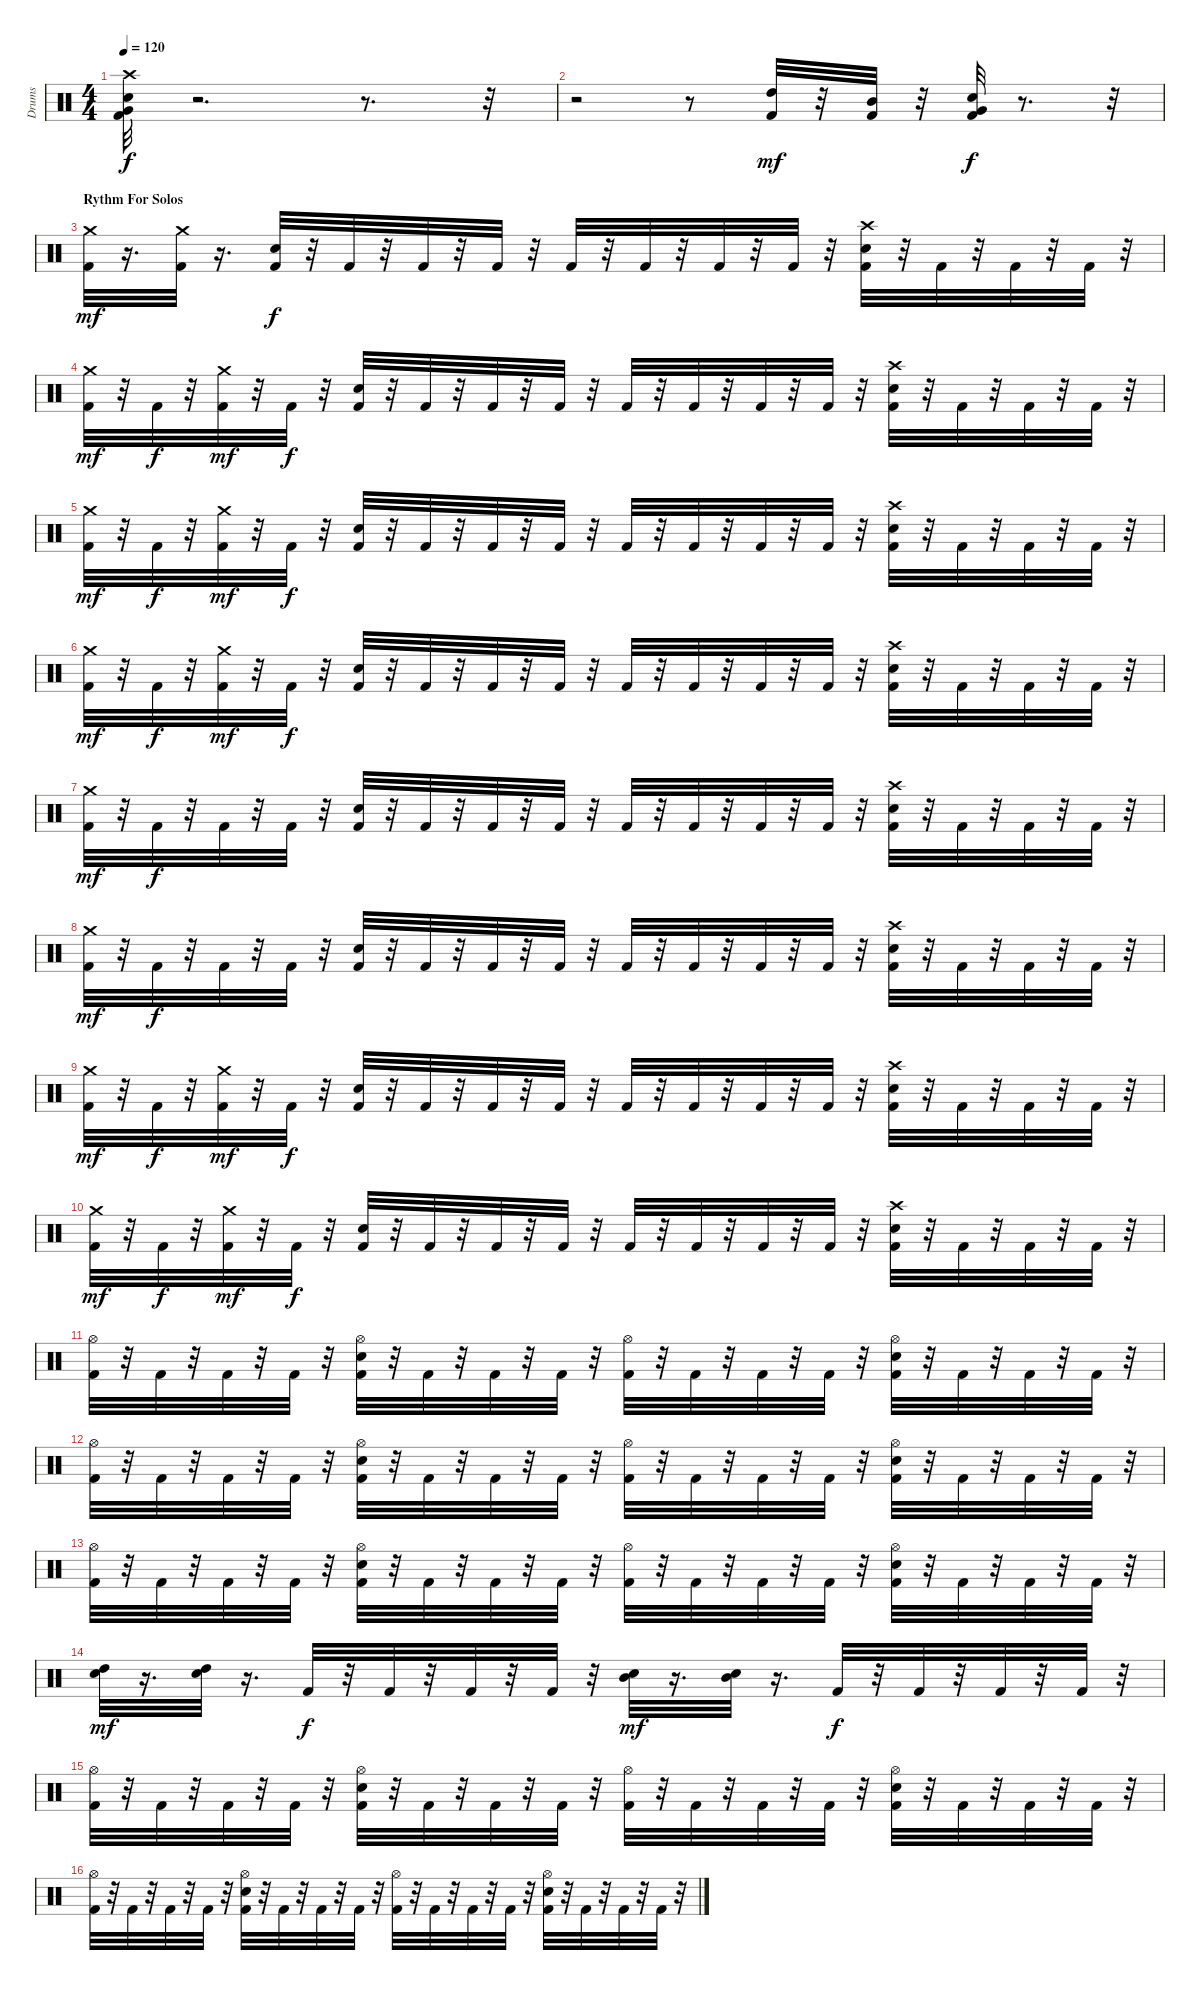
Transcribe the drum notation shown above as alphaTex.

\track ("Drums" "Drums") {instrument percussion}
\staff {score}
\articulation defaults
\ts (4 4)
\tempo 120
\clef neutral
\ks c
("Kick (hit) 2" "Snare (hit) 2" "Very Low Tom (hit)" "Crash high (hit)").32{dy f} r.2{d} r.8{d} r.32 |
r.2 r.8 ("Kick (hit) 2" "High Tom (hit)").32{dy mf} r.32 ("Kick (hit) 2" "Mid Tom (hit)").32 r.32 ("Kick (hit) 2" "Snare (hit) 2" "Very Low Tom (hit)").32{dy f} r.8{d} r.32 |
\section ("" "Rythm For Solos")
("Kick (hit) 2" "Crash medium (hit)").32{dy mf} r.16{d} ("Kick (hit) 2" "Crash medium (hit)").32 r.16{d} ("Kick (hit) 2" "Snare (hit) 2").32{dy f} r.32 "Kick (hit) 2".32 r.32 "Kick (hit) 2".32 r.32 "Kick (hit) 2".32 r.32 "Kick (hit) 2".32 r.32 "Kick (hit) 2".32 r.32 "Kick (hit) 2".32 r.32 "Kick (hit) 2".32 r.32 ("Kick (hit) 2" "Snare (hit) 2" "Crash high (hit)").32 r.32 "Kick (hit) 2".32 r.32 "Kick (hit) 2".32 r.32 "Kick (hit) 2".32 r.32 |
("Kick (hit) 2" "Crash medium (hit)").32{dy mf} r.32 "Kick (hit) 2".32{dy f} r.32 ("Kick (hit) 2" "Crash medium (hit)").32{dy mf} r.32 "Kick (hit) 2".32{dy f} r.32 ("Kick (hit) 2" "Snare (hit) 2").32 r.32 "Kick (hit) 2".32 r.32 "Kick (hit) 2".32 r.32 "Kick (hit) 2".32 r.32 "Kick (hit) 2".32 r.32 "Kick (hit) 2".32 r.32 "Kick (hit) 2".32 r.32 "Kick (hit) 2".32 r.32 ("Kick (hit) 2" "Snare (hit) 2" "Crash high (hit)").32 r.32 "Kick (hit) 2".32 r.32 "Kick (hit) 2".32 r.32 "Kick (hit) 2".32 r.32 |
("Kick (hit) 2" "Crash medium (hit)").32{dy mf} r.32 "Kick (hit) 2".32{dy f} r.32 ("Kick (hit) 2" "Crash medium (hit)").32{dy mf} r.32 "Kick (hit) 2".32{dy f} r.32 ("Kick (hit) 2" "Snare (hit) 2").32 r.32 "Kick (hit) 2".32 r.32 "Kick (hit) 2".32 r.32 "Kick (hit) 2".32 r.32 "Kick (hit) 2".32 r.32 "Kick (hit) 2".32 r.32 "Kick (hit) 2".32 r.32 "Kick (hit) 2".32 r.32 ("Kick (hit) 2" "Snare (hit) 2" "Crash high (hit)").32 r.32 "Kick (hit) 2".32 r.32 "Kick (hit) 2".32 r.32 "Kick (hit) 2".32 r.32 |
("Kick (hit) 2" "Crash medium (hit)").32{dy mf} r.32 "Kick (hit) 2".32{dy f} r.32 ("Kick (hit) 2" "Crash medium (hit)").32{dy mf} r.32 "Kick (hit) 2".32{dy f} r.32 ("Kick (hit) 2" "Snare (hit) 2").32 r.32 "Kick (hit) 2".32 r.32 "Kick (hit) 2".32 r.32 "Kick (hit) 2".32 r.32 "Kick (hit) 2".32 r.32 "Kick (hit) 2".32 r.32 "Kick (hit) 2".32 r.32 "Kick (hit) 2".32 r.32 ("Kick (hit) 2" "Snare (hit) 2" "Crash high (hit)").32 r.32 "Kick (hit) 2".32 r.32 "Kick (hit) 2".32 r.32 "Kick (hit) 2".32 r.32 |
("Kick (hit) 2" "Crash medium (hit)").32{dy mf} r.32 "Kick (hit) 2".32{dy f} r.32 "Kick (hit) 2".32 r.32 "Kick (hit) 2".32 r.32 ("Kick (hit) 2" "Snare (hit) 2").32 r.32 "Kick (hit) 2".32 r.32 "Kick (hit) 2".32 r.32 "Kick (hit) 2".32 r.32 "Kick (hit) 2".32 r.32 "Kick (hit) 2".32 r.32 "Kick (hit) 2".32 r.32 "Kick (hit) 2".32 r.32 ("Kick (hit) 2" "Snare (hit) 2" "Crash high (hit)").32 r.32 "Kick (hit) 2".32 r.32 "Kick (hit) 2".32 r.32 "Kick (hit) 2".32 r.32 |
("Kick (hit) 2" "Crash medium (hit)").32{dy mf} r.32 "Kick (hit) 2".32{dy f} r.32 "Kick (hit) 2".32 r.32 "Kick (hit) 2".32 r.32 ("Kick (hit) 2" "Snare (hit) 2").32 r.32 "Kick (hit) 2".32 r.32 "Kick (hit) 2".32 r.32 "Kick (hit) 2".32 r.32 "Kick (hit) 2".32 r.32 "Kick (hit) 2".32 r.32 "Kick (hit) 2".32 r.32 "Kick (hit) 2".32 r.32 ("Kick (hit) 2" "Snare (hit) 2" "Crash high (hit)").32 r.32 "Kick (hit) 2".32 r.32 "Kick (hit) 2".32 r.32 "Kick (hit) 2".32 r.32 |
("Kick (hit) 2" "Crash medium (hit)").32{dy mf} r.32 "Kick (hit) 2".32{dy f} r.32 ("Kick (hit) 2" "Crash medium (hit)").32{dy mf} r.32 "Kick (hit) 2".32{dy f} r.32 ("Kick (hit) 2" "Snare (hit) 2").32 r.32 "Kick (hit) 2".32 r.32 "Kick (hit) 2".32 r.32 "Kick (hit) 2".32 r.32 "Kick (hit) 2".32 r.32 "Kick (hit) 2".32 r.32 "Kick (hit) 2".32 r.32 "Kick (hit) 2".32 r.32 ("Kick (hit) 2" "Snare (hit) 2" "Crash high (hit)").32 r.32 "Kick (hit) 2".32 r.32 "Kick (hit) 2".32 r.32 "Kick (hit) 2".32 r.32 |
("Kick (hit) 2" "Crash medium (hit)").32{dy mf} r.32 "Kick (hit) 2".32{dy f} r.32 ("Kick (hit) 2" "Crash medium (hit)").32{dy mf} r.32 "Kick (hit) 2".32{dy f} r.32 ("Kick (hit) 2" "Snare (hit) 2").32 r.32 "Kick (hit) 2".32 r.32 "Kick (hit) 2".32 r.32 "Kick (hit) 2".32 r.32 "Kick (hit) 2".32 r.32 "Kick (hit) 2".32 r.32 "Kick (hit) 2".32 r.32 "Kick (hit) 2".32 r.32 ("Kick (hit) 2" "Snare (hit) 2" "Crash high (hit)").32 r.32 "Kick (hit) 2".32 r.32 "Kick (hit) 2".32 r.32 "Kick (hit) 2".32 r.32 |
("Kick (hit) 2" "Hi-Hat (open)").32 r.32 "Kick (hit) 2".32 r.32 "Kick (hit) 2".32 r.32 "Kick (hit) 2".32 r.32 ("Kick (hit) 2" "Snare (hit) 2" "Hi-Hat (open)").32 r.32 "Kick (hit) 2".32 r.32 "Kick (hit) 2".32 r.32 "Kick (hit) 2".32 r.32 ("Kick (hit) 2" "Hi-Hat (open)").32 r.32 "Kick (hit) 2".32 r.32 "Kick (hit) 2".32 r.32 "Kick (hit) 2".32 r.32 ("Kick (hit) 2" "Snare (hit) 2" "Hi-Hat (open)").32 r.32 "Kick (hit) 2".32 r.32 "Kick (hit) 2".32 r.32 "Kick (hit) 2".32 r.32 |
("Kick (hit) 2" "Hi-Hat (open)").32 r.32 "Kick (hit) 2".32 r.32 "Kick (hit) 2".32 r.32 "Kick (hit) 2".32 r.32 ("Kick (hit) 2" "Snare (hit) 2" "Hi-Hat (open)").32 r.32 "Kick (hit) 2".32 r.32 "Kick (hit) 2".32 r.32 "Kick (hit) 2".32 r.32 ("Kick (hit) 2" "Hi-Hat (open)").32 r.32 "Kick (hit) 2".32 r.32 "Kick (hit) 2".32 r.32 "Kick (hit) 2".32 r.32 ("Kick (hit) 2" "Snare (hit) 2" "Hi-Hat (open)").32 r.32 "Kick (hit) 2".32 r.32 "Kick (hit) 2".32 r.32 "Kick (hit) 2".32 r.32 |
("Kick (hit) 2" "Hi-Hat (open)").32 r.32 "Kick (hit) 2".32 r.32 "Kick (hit) 2".32 r.32 "Kick (hit) 2".32 r.32 ("Kick (hit) 2" "Snare (hit) 2" "Hi-Hat (open)").32 r.32 "Kick (hit) 2".32 r.32 "Kick (hit) 2".32 r.32 "Kick (hit) 2".32 r.32 ("Kick (hit) 2" "Hi-Hat (open)").32 r.32 "Kick (hit) 2".32 r.32 "Kick (hit) 2".32 r.32 "Kick (hit) 2".32 r.32 ("Kick (hit) 2" "Snare (hit) 2" "Hi-Hat (open)").32 r.32 "Kick (hit) 2".32 r.32 "Kick (hit) 2".32 r.32 "Kick (hit) 2".32 r.32 |
("Snare (hit) 2" "High Tom (hit)").32{dy mf} r.16{d} ("Snare (hit) 2" "High Tom (hit)").32 r.16{d} "Kick (hit) 2".32{dy f} r.32 "Kick (hit) 2".32 r.32 "Kick (hit) 2".32 r.32 "Kick (hit) 2".32 r.32 ("Snare (hit) 2" "Mid Tom (hit)").32{dy mf} r.16{d} ("Snare (hit) 2" "Mid Tom (hit)").32 r.16{d} "Kick (hit) 2".32{dy f} r.32 "Kick (hit) 2".32 r.32 "Kick (hit) 2".32 r.32 "Kick (hit) 2".32 r.32 |
("Kick (hit) 2" "Hi-Hat (open)").32 r.32 "Kick (hit) 2".32 r.32 "Kick (hit) 2".32 r.32 "Kick (hit) 2".32 r.32 ("Kick (hit) 2" "Snare (hit) 2" "Hi-Hat (open)").32 r.32 "Kick (hit) 2".32 r.32 "Kick (hit) 2".32 r.32 "Kick (hit) 2".32 r.32 ("Kick (hit) 2" "Hi-Hat (open)").32 r.32 "Kick (hit) 2".32 r.32 "Kick (hit) 2".32 r.32 "Kick (hit) 2".32 r.32 ("Kick (hit) 2" "Snare (hit) 2" "Hi-Hat (open)").32 r.32 "Kick (hit) 2".32 r.32 "Kick (hit) 2".32 r.32 "Kick (hit) 2".32 r.32 |
("Kick (hit) 2" "Hi-Hat (open)").32 r.32 "Kick (hit) 2".32 r.32 "Kick (hit) 2".32 r.32 "Kick (hit) 2".32 r.32 ("Kick (hit) 2" "Snare (hit) 2" "Hi-Hat (open)").32 r.32 "Kick (hit) 2".32 r.32 "Kick (hit) 2".32 r.32 "Kick (hit) 2".32 r.32 ("Kick (hit) 2" "Hi-Hat (open)").32 r.32 "Kick (hit) 2".32 r.32 "Kick (hit) 2".32 r.32 "Kick (hit) 2".32 r.32 ("Kick (hit) 2" "Snare (hit) 2" "Hi-Hat (open)").32 r.32 "Kick (hit) 2".32 r.32 "Kick (hit) 2".32 r.32 "Kick (hit) 2".32 r.32
